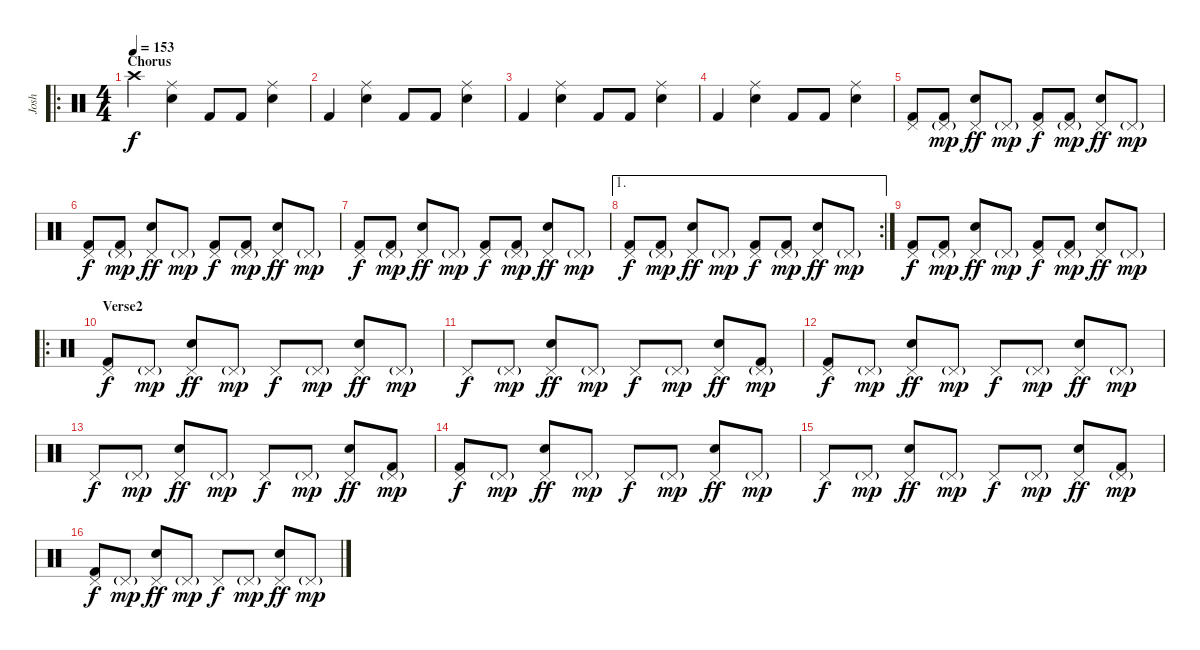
\track ("Josh" "Josh") {instrument percussion}
\staff {score}
\articulation defaults
\ro
\ts (4 4)
\section ("" "Chorus")
\tempo 153
\clef neutral
\ks c "Crash high (hit)".4{dy f}
("Ride (middle)" "Electric Snare (hit)").4 "Kick (hit) 2".8 "Kick (hit) 2".8 ("Ride (middle)" "Electric Snare (hit)").4 |
"Kick (hit) 2".4 ("Ride (middle)" "Electric Snare (hit)").4 "Kick (hit) 2".8 "Kick (hit) 2".8 ("Ride (middle)" "Electric Snare (hit)").4 |
"Kick (hit) 2".4 ("Ride (middle)" "Electric Snare (hit)").4 "Kick (hit) 2".8 "Kick (hit) 2".8 ("Ride (middle)" "Electric Snare (hit)").4 |
"Kick (hit) 2".4 ("Ride (middle)" "Electric Snare (hit)").4 "Kick (hit) 2".8 "Kick (hit) 2".8 ("Ride (middle)" "Electric Snare (hit)").4 |
("Pedal Hi-Hat (hit)" "Kick (hit) 2").8 ("Pedal Hi-Hat (hit)"{g} "Kick (hit) 2").8{dy mp} ("Pedal Hi-Hat (hit)" "Electric Snare (hit)").8{dy ff} "Pedal Hi-Hat (hit)"{g}.8{dy mp} ("Pedal Hi-Hat (hit)" "Kick (hit) 2").8{dy f} ("Pedal Hi-Hat (hit)"{g} "Kick (hit) 2").8{dy mp} ("Pedal Hi-Hat (hit)" "Electric Snare (hit)").8{dy ff} "Pedal Hi-Hat (hit)"{g}.8{dy mp} |
("Pedal Hi-Hat (hit)" "Kick (hit) 2").8{dy f} ("Pedal Hi-Hat (hit)"{g} "Kick (hit) 2").8{dy mp} ("Pedal Hi-Hat (hit)" "Electric Snare (hit)").8{dy ff} "Pedal Hi-Hat (hit)"{g}.8{dy mp} ("Pedal Hi-Hat (hit)" "Kick (hit) 2").8{dy f} ("Pedal Hi-Hat (hit)"{g} "Kick (hit) 2").8{dy mp} ("Pedal Hi-Hat (hit)" "Electric Snare (hit)").8{dy ff} "Pedal Hi-Hat (hit)"{g}.8{dy mp} |
("Pedal Hi-Hat (hit)" "Kick (hit) 2").8{dy f} ("Pedal Hi-Hat (hit)"{g} "Kick (hit) 2").8{dy mp} ("Pedal Hi-Hat (hit)" "Electric Snare (hit)").8{dy ff} "Pedal Hi-Hat (hit)"{g}.8{dy mp} ("Pedal Hi-Hat (hit)" "Kick (hit) 2").8{dy f} ("Pedal Hi-Hat (hit)"{g} "Kick (hit) 2").8{dy mp} ("Pedal Hi-Hat (hit)" "Electric Snare (hit)").8{dy ff} "Pedal Hi-Hat (hit)"{g}.8{dy mp} |
\ae 1
\rc 2
("Pedal Hi-Hat (hit)" "Kick (hit) 2").8{dy f} ("Pedal Hi-Hat (hit)"{g} "Kick (hit) 2").8{dy mp} ("Pedal Hi-Hat (hit)" "Electric Snare (hit)").8{dy ff} "Pedal Hi-Hat (hit)"{g}.8{dy mp} ("Pedal Hi-Hat (hit)" "Kick (hit) 2").8{dy f} ("Pedal Hi-Hat (hit)"{g} "Kick (hit) 2").8{dy mp} ("Pedal Hi-Hat (hit)" "Electric Snare (hit)").8{dy ff} "Pedal Hi-Hat (hit)"{g}.8{dy mp} |
("Pedal Hi-Hat (hit)" "Kick (hit) 2").8{dy f} ("Pedal Hi-Hat (hit)"{g} "Kick (hit) 2").8{dy mp} ("Pedal Hi-Hat (hit)" "Electric Snare (hit)").8{dy ff} "Pedal Hi-Hat (hit)"{g}.8{dy mp} ("Pedal Hi-Hat (hit)" "Kick (hit) 2").8{dy f} ("Pedal Hi-Hat (hit)"{g} "Kick (hit) 2").8{dy mp} ("Pedal Hi-Hat (hit)" "Electric Snare (hit)").8{dy ff} "Pedal Hi-Hat (hit)"{g}.8{dy mp} |
\ro
\section ("" "Verse2")
("Pedal Hi-Hat (hit)" "Kick (hit) 2").8{dy f} "Pedal Hi-Hat (hit)"{g}.8{dy mp} ("Pedal Hi-Hat (hit)" "Electric Snare (hit)").8{dy ff} "Pedal Hi-Hat (hit)"{g}.8{dy mp} "Pedal Hi-Hat (hit)".8{dy f} "Pedal Hi-Hat (hit)"{g}.8{dy mp} ("Pedal Hi-Hat (hit)" "Electric Snare (hit)").8{dy ff} "Pedal Hi-Hat (hit)"{g}.8{dy mp} |
"Pedal Hi-Hat (hit)".8{dy f} "Pedal Hi-Hat (hit)"{g}.8{dy mp} ("Pedal Hi-Hat (hit)" "Electric Snare (hit)").8{dy ff} "Pedal Hi-Hat (hit)"{g}.8{dy mp} "Pedal Hi-Hat (hit)".8{dy f} "Pedal Hi-Hat (hit)"{g}.8{dy mp} ("Pedal Hi-Hat (hit)" "Electric Snare (hit)").8{dy ff} ("Pedal Hi-Hat (hit)"{g} "Kick (hit) 2").8{dy mp} |
("Pedal Hi-Hat (hit)" "Kick (hit) 2").8{dy f} "Pedal Hi-Hat (hit)"{g}.8{dy mp} ("Pedal Hi-Hat (hit)" "Electric Snare (hit)").8{dy ff} "Pedal Hi-Hat (hit)"{g}.8{dy mp} "Pedal Hi-Hat (hit)".8{dy f} "Pedal Hi-Hat (hit)"{g}.8{dy mp} ("Pedal Hi-Hat (hit)" "Electric Snare (hit)").8{dy ff} "Pedal Hi-Hat (hit)"{g}.8{dy mp} |
"Pedal Hi-Hat (hit)".8{dy f} "Pedal Hi-Hat (hit)"{g}.8{dy mp} ("Pedal Hi-Hat (hit)" "Electric Snare (hit)").8{dy ff} "Pedal Hi-Hat (hit)"{g}.8{dy mp} "Pedal Hi-Hat (hit)".8{dy f} "Pedal Hi-Hat (hit)"{g}.8{dy mp} ("Pedal Hi-Hat (hit)" "Electric Snare (hit)").8{dy ff} ("Pedal Hi-Hat (hit)"{g} "Kick (hit) 2").8{dy mp} |
("Pedal Hi-Hat (hit)" "Kick (hit) 2").8{dy f} "Pedal Hi-Hat (hit)"{g}.8{dy mp} ("Pedal Hi-Hat (hit)" "Electric Snare (hit)").8{dy ff} "Pedal Hi-Hat (hit)"{g}.8{dy mp} "Pedal Hi-Hat (hit)".8{dy f} "Pedal Hi-Hat (hit)"{g}.8{dy mp} ("Pedal Hi-Hat (hit)" "Electric Snare (hit)").8{dy ff} "Pedal Hi-Hat (hit)"{g}.8{dy mp} |
"Pedal Hi-Hat (hit)".8{dy f} "Pedal Hi-Hat (hit)"{g}.8{dy mp} ("Pedal Hi-Hat (hit)" "Electric Snare (hit)").8{dy ff} "Pedal Hi-Hat (hit)"{g}.8{dy mp} "Pedal Hi-Hat (hit)".8{dy f} "Pedal Hi-Hat (hit)"{g}.8{dy mp} ("Pedal Hi-Hat (hit)" "Electric Snare (hit)").8{dy ff} ("Pedal Hi-Hat (hit)"{g} "Kick (hit) 2").8{dy mp} |
("Pedal Hi-Hat (hit)" "Kick (hit) 2").8{dy f} "Pedal Hi-Hat (hit)"{g}.8{dy mp} ("Pedal Hi-Hat (hit)" "Electric Snare (hit)").8{dy ff} "Pedal Hi-Hat (hit)"{g}.8{dy mp} "Pedal Hi-Hat (hit)".8{dy f} "Pedal Hi-Hat (hit)"{g}.8{dy mp} ("Pedal Hi-Hat (hit)" "Electric Snare (hit)").8{dy ff} "Pedal Hi-Hat (hit)"{g}.8{dy mp}
